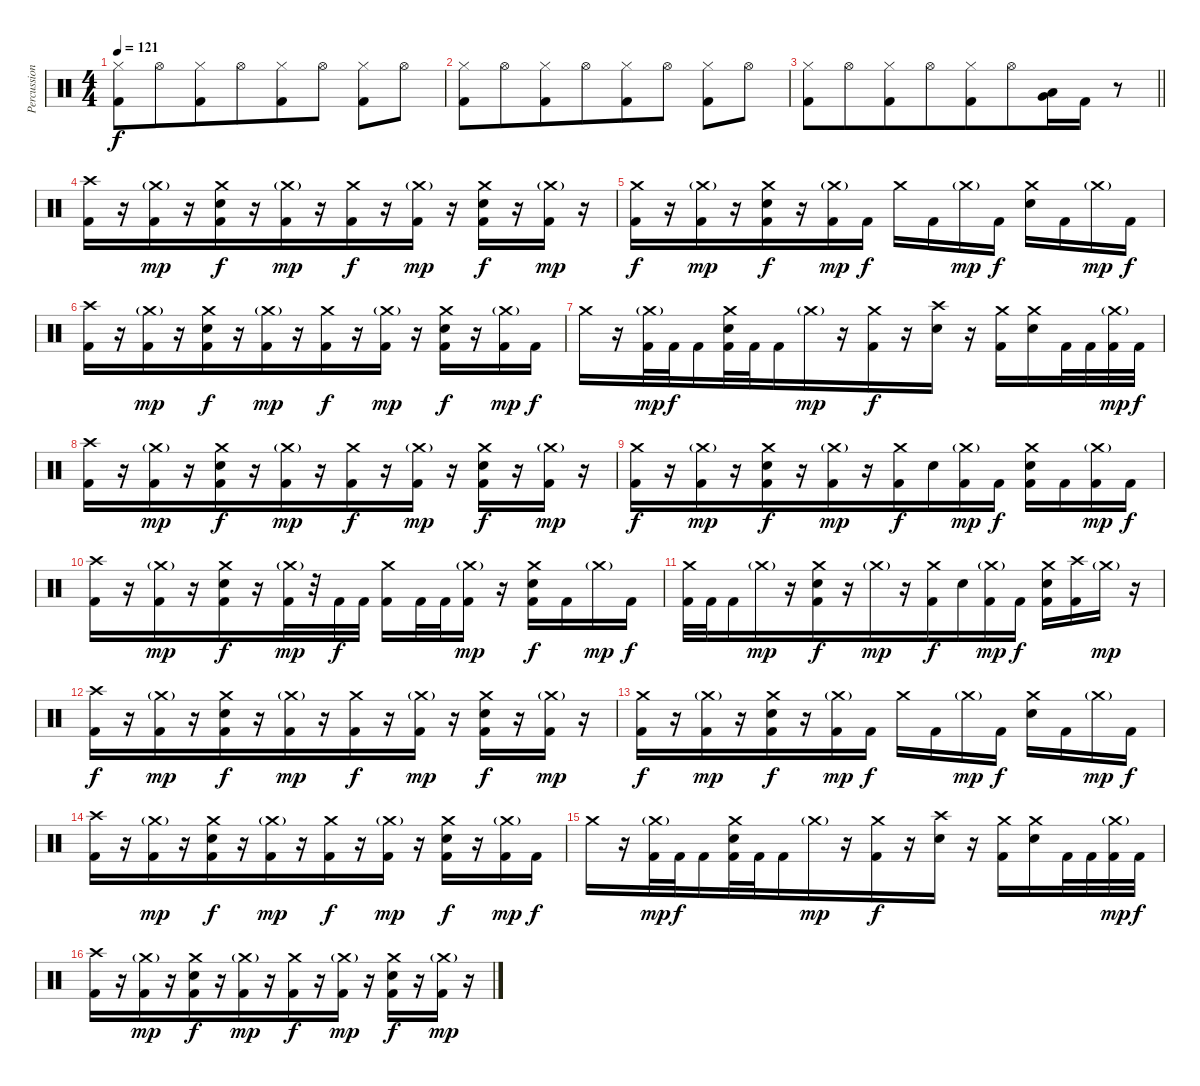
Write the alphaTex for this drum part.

\track ("Percussion" "Percussion") {instrument percussion}
\staff {score}
\articulation defaults
\ts (4 4)
\tempo 121
\clef neutral
\ks c
("Hi-Hat (closed)" "Kick (hit) 2").8{dy f} "Hi-Hat (open)".8{beam merge} ("Hi-Hat (closed)" "Kick (hit) 2").8{beam merge} "Hi-Hat (open)".8{beam merge} ("Hi-Hat (closed)" "Kick (hit) 2").8 "Hi-Hat (open)".8 ("Hi-Hat (closed)" "Kick (hit) 2").8 "Hi-Hat (open)".8 |
("Hi-Hat (closed)" "Kick (hit) 2").8 "Hi-Hat (open)".8{beam merge} ("Hi-Hat (closed)" "Kick (hit) 2").8{beam merge} "Hi-Hat (open)".8{beam merge} ("Hi-Hat (closed)" "Kick (hit) 2").8 "Hi-Hat (open)".8 ("Hi-Hat (closed)" "Kick (hit) 2").8 "Hi-Hat (open)".8 |
\barLineRight lightlight
("Hi-Hat (closed)" "Kick (hit) 2").8 "Hi-Hat (open)".8{beam merge} ("Hi-Hat (closed)" "Kick (hit) 2").8{beam merge} "Hi-Hat (open)".8{beam merge} ("Hi-Hat (closed)" "Kick (hit) 2").8 "Hi-Hat (open)".8{beam merge} ("Very Low Tom (hit)" "Low Floor Tom (hit)").16 "Kick (hit) 2".16 r.8 |
\section ("" "")
("Crash high (hit)" "Kick (hit) 2").16 r.16 ("Crash medium (hit)"{g} "Kick (hit) 2").16{dy mp beam merge} r.16{beam merge} ("Crash medium (hit)" "Electric Snare (hit)" "Kick (hit) 2").16{dy f beam merge} r.16{beam merge} ("Crash medium (hit)"{g} "Kick (hit) 2").16{dy mp beam merge} r.16 ("Crash medium (hit)" "Kick (hit) 2").16{dy f} r.16{beam merge} ("Crash medium (hit)"{g} "Kick (hit) 2").16{dy mp} r.16 ("Crash medium (hit)" "Electric Snare (hit)" "Kick (hit) 2").16{dy f} r.16 ("Crash medium (hit)"{g} "Kick (hit) 2").16{dy mp beam merge} r.16 |
("Crash medium (hit)" "Kick (hit) 2").16{dy f} r.16 ("Crash medium (hit)"{g} "Kick (hit) 2").16{dy mp beam merge} r.16{beam merge} ("Crash medium (hit)" "Electric Snare (hit)" "Kick (hit) 2").16{dy f beam merge} r.16{beam merge} ("Crash medium (hit)"{g} "Kick (hit) 2").16{dy mp beam merge} "Kick (hit) 2".16{dy f} "Crash medium (hit)".16 "Kick (hit) 2".16{beam merge} "Crash medium (hit)"{g}.16{dy mp} "Kick (hit) 2".16{dy f} ("Crash medium (hit)" "Electric Snare (hit)").16 "Kick (hit) 2".16 "Crash medium (hit)"{g}.16{dy mp beam merge} "Kick (hit) 2".16{dy f} |
("Crash high (hit)" "Kick (hit) 2").16 r.16 ("Crash medium (hit)"{g} "Kick (hit) 2").16{dy mp beam merge} r.16{beam merge} ("Crash medium (hit)" "Electric Snare (hit)" "Kick (hit) 2").16{dy f beam merge} r.16{beam merge} ("Crash medium (hit)"{g} "Kick (hit) 2").16{dy mp beam merge} r.16 ("Crash medium (hit)" "Kick (hit) 2").16{dy f} r.16{beam merge} ("Crash medium (hit)"{g} "Kick (hit) 2").16{dy mp} r.16 ("Crash medium (hit)" "Electric Snare (hit)" "Kick (hit) 2").16{dy f} r.16 ("Crash medium (hit)"{g} "Kick (hit) 2").16{dy mp beam merge} "Kick (hit) 2".16{dy f} |
"Crash medium (hit)".16 r.16 ("Crash medium (hit)"{g} "Kick (hit) 2").32{dy mp beam merge} "Kick (hit) 2".32{dy f beam merge} "Kick (hit) 2".16{beam merge} ("Crash medium (hit)" "Electric Snare (hit)" "Kick (hit) 2").32{beam merge} "Kick (hit) 2".32{beam merge} "Kick (hit) 2".16{beam merge} "Crash medium (hit)"{g}.16{dy mp beam merge} r.16 ("Crash medium (hit)" "Kick (hit) 2").16{dy f} r.16{beam merge} ("Crash high (hit)" "Electric Snare (hit)").16 r.16 ("Crash medium (hit)" "Kick (hit) 2").16 ("Crash medium (hit)" "Electric Snare (hit)").16 "Kick (hit) 2".32{beam merge} "Kick (hit) 2".32 ("Crash medium (hit)"{g} "Kick (hit) 2").32{dy mp} "Kick (hit) 2".32{dy f} |
("Crash high (hit)" "Kick (hit) 2").16 r.16 ("Crash medium (hit)"{g} "Kick (hit) 2").16{dy mp beam merge} r.16{beam merge} ("Crash medium (hit)" "Electric Snare (hit)" "Kick (hit) 2").16{dy f beam merge} r.16{beam merge} ("Crash medium (hit)"{g} "Kick (hit) 2").16{dy mp beam merge} r.16 ("Crash medium (hit)" "Kick (hit) 2").16{dy f} r.16{beam merge} ("Crash medium (hit)"{g} "Kick (hit) 2").16{dy mp} r.16 ("Crash medium (hit)" "Electric Snare (hit)" "Kick (hit) 2").16{dy f} r.16 ("Crash medium (hit)"{g} "Kick (hit) 2").16{dy mp beam merge} r.16 |
("Crash medium (hit)" "Kick (hit) 2").16{dy f} r.16 ("Crash medium (hit)"{g} "Kick (hit) 2").16{dy mp beam merge} r.16{beam merge} ("Crash medium (hit)" "Electric Snare (hit)" "Kick (hit) 2").16{dy f beam merge} r.16{beam merge} ("Crash medium (hit)"{g} "Kick (hit) 2").16{dy mp beam merge} r.16 ("Crash medium (hit)" "Kick (hit) 2").16{dy f} "Electric Snare (hit)".16{beam merge} ("Crash medium (hit)"{g} "Kick (hit) 2").16{dy mp} "Kick (hit) 2".16{dy f} ("Crash medium (hit)" "Electric Snare (hit)" "Kick (hit) 2").16 "Kick (hit) 2".16 ("Crash medium (hit)"{g} "Kick (hit) 2").16{dy mp beam merge} "Kick (hit) 2".16{dy f} |
("Crash high (hit)" "Kick (hit) 2").16 r.16 ("Crash medium (hit)"{g} "Kick (hit) 2").16{dy mp beam merge} r.16{beam merge} ("Crash medium (hit)" "Electric Snare (hit)" "Kick (hit) 2").16{dy f beam merge} r.16{beam merge} ("Crash medium (hit)"{g} "Kick (hit) 2").32{dy mp beam merge} r.32{beam merge} "Kick (hit) 2".32{dy f} "Kick (hit) 2".32 ("Crash medium (hit)" "Kick (hit) 2").16 "Kick (hit) 2".32 "Kick (hit) 2".32{beam merge} ("Crash medium (hit)"{g} "Kick (hit) 2").16{dy mp} r.16 ("Crash medium (hit)" "Electric Snare (hit)" "Kick (hit) 2").16{dy f} "Kick (hit) 2".16 "Crash medium (hit)"{g}.16{dy mp beam merge} "Kick (hit) 2".16{dy f} |
("Crash medium (hit)" "Kick (hit) 2").32 "Kick (hit) 2".32 "Kick (hit) 2".16 "Crash medium (hit)"{g}.16{dy mp beam merge} r.16{beam merge} ("Crash medium (hit)" "Electric Snare (hit)" "Kick (hit) 2").16{dy f beam merge} r.16{beam merge} "Crash medium (hit)"{g}.16{dy mp beam merge} r.16 ("Crash medium (hit)" "Kick (hit) 2").16{dy f} "Electric Snare (hit)".16{beam merge} ("Crash medium (hit)"{g} "Kick (hit) 2").16{dy mp} "Kick (hit) 2".16{dy f} ("Crash medium (hit)" "Electric Snare (hit)" "Kick (hit) 2").16 ("Crash high (hit)" "Kick (hit) 2").16 "Crash medium (hit)"{g}.16{dy mp beam merge} r.16 |
("Crash high (hit)" "Kick (hit) 2").16{dy f} r.16 ("Crash medium (hit)"{g} "Kick (hit) 2").16{dy mp beam merge} r.16{beam merge} ("Crash medium (hit)" "Electric Snare (hit)" "Kick (hit) 2").16{dy f beam merge} r.16{beam merge} ("Crash medium (hit)"{g} "Kick (hit) 2").16{dy mp beam merge} r.16 ("Crash medium (hit)" "Kick (hit) 2").16{dy f} r.16{beam merge} ("Crash medium (hit)"{g} "Kick (hit) 2").16{dy mp} r.16 ("Crash medium (hit)" "Electric Snare (hit)" "Kick (hit) 2").16{dy f} r.16 ("Crash medium (hit)"{g} "Kick (hit) 2").16{dy mp beam merge} r.16 |
("Crash medium (hit)" "Kick (hit) 2").16{dy f} r.16 ("Crash medium (hit)"{g} "Kick (hit) 2").16{dy mp beam merge} r.16{beam merge} ("Crash medium (hit)" "Electric Snare (hit)" "Kick (hit) 2").16{dy f beam merge} r.16{beam merge} ("Crash medium (hit)"{g} "Kick (hit) 2").16{dy mp beam merge} "Kick (hit) 2".16{dy f} "Crash medium (hit)".16 "Kick (hit) 2".16{beam merge} "Crash medium (hit)"{g}.16{dy mp} "Kick (hit) 2".16{dy f} ("Crash medium (hit)" "Electric Snare (hit)").16 "Kick (hit) 2".16 "Crash medium (hit)"{g}.16{dy mp beam merge} "Kick (hit) 2".16{dy f} |
("Crash high (hit)" "Kick (hit) 2").16 r.16 ("Crash medium (hit)"{g} "Kick (hit) 2").16{dy mp beam merge} r.16{beam merge} ("Crash medium (hit)" "Electric Snare (hit)" "Kick (hit) 2").16{dy f beam merge} r.16{beam merge} ("Crash medium (hit)"{g} "Kick (hit) 2").16{dy mp beam merge} r.16 ("Crash medium (hit)" "Kick (hit) 2").16{dy f} r.16{beam merge} ("Crash medium (hit)"{g} "Kick (hit) 2").16{dy mp} r.16 ("Crash medium (hit)" "Electric Snare (hit)" "Kick (hit) 2").16{dy f} r.16 ("Crash medium (hit)"{g} "Kick (hit) 2").16{dy mp beam merge} "Kick (hit) 2".16{dy f} |
"Crash medium (hit)".16 r.16 ("Crash medium (hit)"{g} "Kick (hit) 2").32{dy mp beam merge} "Kick (hit) 2".32{dy f beam merge} "Kick (hit) 2".16{beam merge} ("Crash medium (hit)" "Electric Snare (hit)" "Kick (hit) 2").32{beam merge} "Kick (hit) 2".32{beam merge} "Kick (hit) 2".16{beam merge} "Crash medium (hit)"{g}.16{dy mp beam merge} r.16 ("Crash medium (hit)" "Kick (hit) 2").16{dy f} r.16{beam merge} ("Crash high (hit)" "Electric Snare (hit)").16 r.16 ("Crash medium (hit)" "Kick (hit) 2").16 ("Crash medium (hit)" "Electric Snare (hit)").16 "Kick (hit) 2".32{beam merge} "Kick (hit) 2".32 ("Crash medium (hit)"{g} "Kick (hit) 2").32{dy mp} "Kick (hit) 2".32{dy f} |
("Crash high (hit)" "Kick (hit) 2").16 r.16 ("Crash medium (hit)"{g} "Kick (hit) 2").16{dy mp beam merge} r.16{beam merge} ("Crash medium (hit)" "Electric Snare (hit)" "Kick (hit) 2").16{dy f beam merge} r.16{beam merge} ("Crash medium (hit)"{g} "Kick (hit) 2").16{dy mp beam merge} r.16 ("Crash medium (hit)" "Kick (hit) 2").16{dy f} r.16{beam merge} ("Crash medium (hit)"{g} "Kick (hit) 2").16{dy mp} r.16 ("Crash medium (hit)" "Electric Snare (hit)" "Kick (hit) 2").16{dy f} r.16 ("Crash medium (hit)"{g} "Kick (hit) 2").16{dy mp beam merge} r.16
